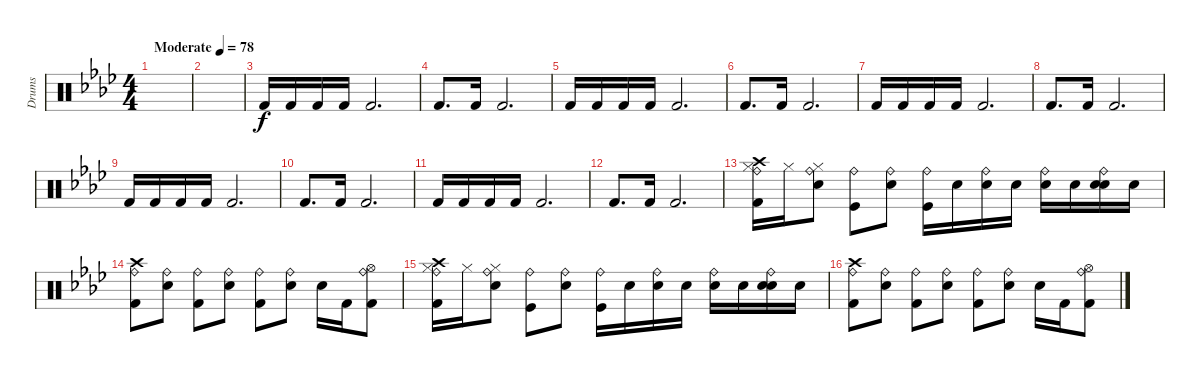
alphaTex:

\track ("Drums" "Drums") {instrument percussion}
\staff {score}
\articulation defaults
\ts (4 4)
\tempo (78 "Moderate")
\clef neutral
\ks fminor
|
|
"Kick (hit) 2".16 "Kick (hit) 2".16 "Kick (hit) 2".16 "Kick (hit) 2".16 "Kick (hit) 2".2{d} |
"Kick (hit) 2".8{d} "Kick (hit) 2".16 "Kick (hit) 2".2{d} |
"Kick (hit) 2".16 "Kick (hit) 2".16 "Kick (hit) 2".16 "Kick (hit) 2".16 "Kick (hit) 2".2{d} |
"Kick (hit) 2".8{d} "Kick (hit) 2".16 "Kick (hit) 2".2{d} |
"Kick (hit) 2".16 "Kick (hit) 2".16 "Kick (hit) 2".16 "Kick (hit) 2".16 "Kick (hit) 2".2{d} |
"Kick (hit) 2".8{d} "Kick (hit) 2".16 "Kick (hit) 2".2{d} |
"Kick (hit) 2".16 "Kick (hit) 2".16 "Kick (hit) 2".16 "Kick (hit) 2".16 "Kick (hit) 2".2{d} |
"Kick (hit) 2".8{d} "Kick (hit) 2".16 "Kick (hit) 2".2{d} |
"Kick (hit) 2".16 "Kick (hit) 2".16 "Kick (hit) 2".16 "Kick (hit) 2".16 "Kick (hit) 2".2{d} |
"Kick (hit) 2".8{d} "Kick (hit) 2".16 "Kick (hit) 2".2{d} |
("Crash high (hit)" "Ride (bell)" "Hi-Hat (closed)" "Kick (hit) 2").16 "Hi-Hat (closed)".16 ("Ride (bell)" "Hi-Hat (closed)" "Snare (hit) 2").8 ("Ride (bell)" "Kick (hit)").8 ("Ride (bell)" "Snare (hit) 2").8 ("Ride (bell)" "Kick (hit)").16 "Snare (hit) 2".16 ("Ride (bell)" "Snare (hit) 2").16 "Snare (hit) 2".16 ("Ride (bell)" "Snare (hit) 2").16 "Snare (hit) 2".16 ("Ride (bell)" "Hand Clap (hit)" "Snare (hit) 2").16 "Snare (hit) 2".16 |
("Crash high (hit)" "Ride (bell)" "Kick (hit) 2").8 ("Ride (bell)" "Snare (hit) 2").8 ("Ride (bell)" "Kick (hit) 2").8 ("Ride (bell)" "Snare (hit) 2").8 ("Ride (bell)" "Kick (hit) 2").8 ("Ride (bell)" "Snare (hit) 2").8 "Snare (hit) 2".16 "Kick (hit) 2".16 ("Ride (bell)" "Hi-Hat (open)" "Kick (hit) 2").8 |
("Crash high (hit)" "Ride (bell)" "Hi-Hat (closed)" "Kick (hit) 2").16 "Hi-Hat (closed)".16 ("Ride (bell)" "Hi-Hat (closed)" "Snare (hit) 2").8 ("Ride (bell)" "Kick (hit)").8 ("Ride (bell)" "Snare (hit) 2").8 ("Ride (bell)" "Kick (hit)").16 "Snare (hit) 2".16 ("Ride (bell)" "Snare (hit) 2").16 "Snare (hit) 2".16 ("Ride (bell)" "Snare (hit) 2").16 "Snare (hit) 2".16 ("Ride (bell)" "Hand Clap (hit)" "Snare (hit) 2").16 "Snare (hit) 2".16 |
("Crash high (hit)" "Ride (bell)" "Kick (hit) 2").8 ("Ride (bell)" "Snare (hit) 2").8 ("Ride (bell)" "Kick (hit) 2").8 ("Ride (bell)" "Snare (hit) 2").8 ("Ride (bell)" "Kick (hit) 2").8 ("Ride (bell)" "Snare (hit) 2").8 "Snare (hit) 2".16 "Kick (hit) 2".16 ("Ride (bell)" "Hi-Hat (open)" "Kick (hit) 2").8
